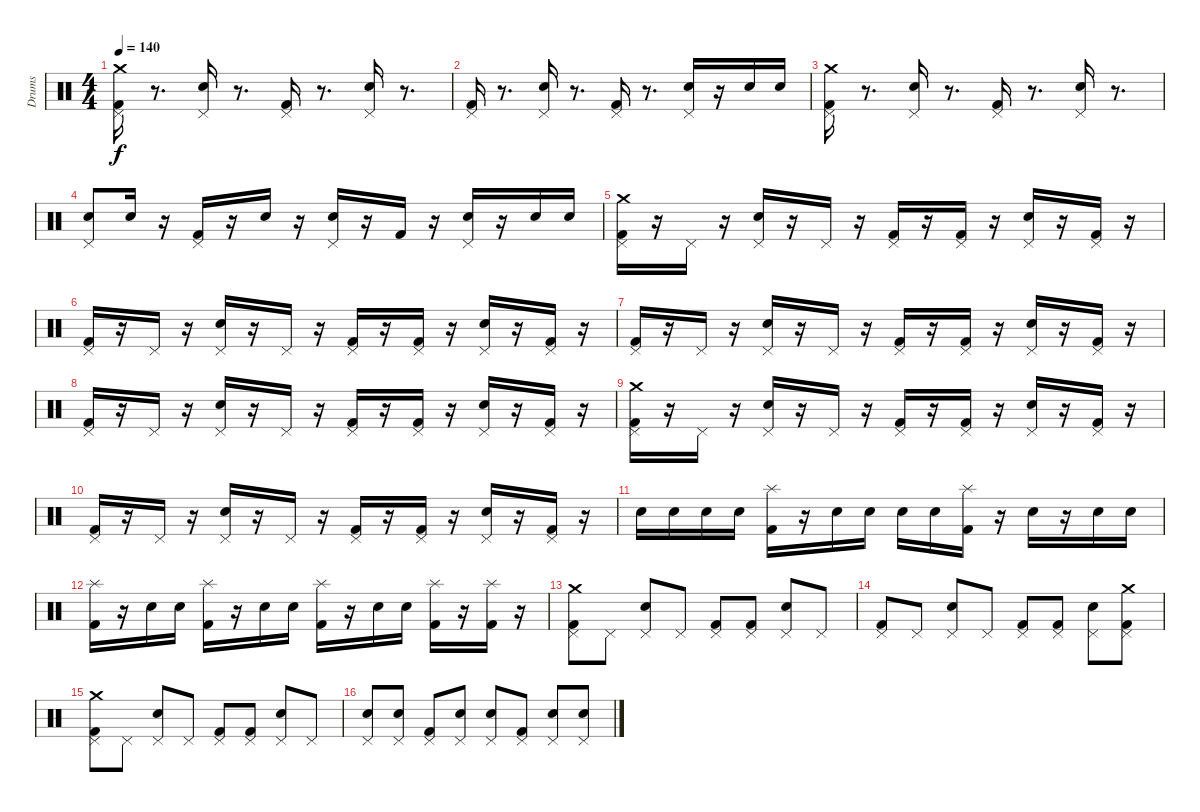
\track ("Drums" "Drums") {instrument percussion}
\staff {score}
\articulation defaults
\ts (4 4)
\tempo 140
\clef neutral
\ks c
("Crash medium (hit)" "Pedal Hi-Hat (hit)" "Kick (hit) 2").16{dy f} r.8{d} ("Pedal Hi-Hat (hit)" "Snare (hit) 2").16 r.8{d} ("Pedal Hi-Hat (hit)" "Kick (hit) 2").16 r.8{d} ("Pedal Hi-Hat (hit)" "Snare (hit) 2").16 r.8{d} |
("Pedal Hi-Hat (hit)" "Kick (hit) 2").16 r.8{d} ("Pedal Hi-Hat (hit)" "Snare (hit) 2").16 r.8{d} ("Pedal Hi-Hat (hit)" "Kick (hit) 2").16 r.8{d} ("Pedal Hi-Hat (hit)" "Snare (hit) 2").16 r.16 "Snare (hit) 2".16 "Snare (hit) 2".16 |
("Crash medium (hit)" "Pedal Hi-Hat (hit)" "Kick (hit) 2").16 r.8{d} ("Pedal Hi-Hat (hit)" "Snare (hit) 2").16 r.8{d} ("Pedal Hi-Hat (hit)" "Kick (hit) 2").16 r.8{d} ("Pedal Hi-Hat (hit)" "Snare (hit) 2").16 r.8{d} |
("Pedal Hi-Hat (hit)" "Snare (hit) 2").8 "Snare (hit) 2".16 r.16 ("Pedal Hi-Hat (hit)" "Kick (hit) 2").16 r.16 "Snare (hit) 2".16 r.16 ("Pedal Hi-Hat (hit)" "Snare (hit) 2").16 r.16 "Kick (hit) 2".16 r.16 ("Pedal Hi-Hat (hit)" "Snare (hit) 2").16 r.16 "Snare (hit) 2".16 "Snare (hit) 2".16 |
("Pedal Hi-Hat (hit)" "Kick (hit) 2" "Crash medium (hit)").16 r.16 "Pedal Hi-Hat (hit)".16 r.16 ("Pedal Hi-Hat (hit)" "Snare (hit) 2").16 r.16 "Pedal Hi-Hat (hit)".16 r.16 ("Pedal Hi-Hat (hit)" "Kick (hit) 2").16 r.16 ("Pedal Hi-Hat (hit)" "Kick (hit) 2").16 r.16 ("Pedal Hi-Hat (hit)" "Snare (hit) 2").16 r.16 ("Pedal Hi-Hat (hit)" "Kick (hit) 2").16 r.16 |
("Pedal Hi-Hat (hit)" "Kick (hit) 2").16 r.16 "Pedal Hi-Hat (hit)".16 r.16 ("Pedal Hi-Hat (hit)" "Snare (hit) 2").16 r.16 "Pedal Hi-Hat (hit)".16 r.16 ("Pedal Hi-Hat (hit)" "Kick (hit) 2").16 r.16 ("Pedal Hi-Hat (hit)" "Kick (hit) 2").16 r.16 ("Pedal Hi-Hat (hit)" "Snare (hit) 2").16 r.16 ("Pedal Hi-Hat (hit)" "Kick (hit) 2").16 r.16 |
("Pedal Hi-Hat (hit)" "Kick (hit) 2").16 r.16 "Pedal Hi-Hat (hit)".16 r.16 ("Pedal Hi-Hat (hit)" "Snare (hit) 2").16 r.16 "Pedal Hi-Hat (hit)".16 r.16 ("Pedal Hi-Hat (hit)" "Kick (hit) 2").16 r.16 ("Pedal Hi-Hat (hit)" "Kick (hit) 2").16 r.16 ("Pedal Hi-Hat (hit)" "Snare (hit) 2").16 r.16 ("Pedal Hi-Hat (hit)" "Kick (hit) 2").16 r.16 |
("Pedal Hi-Hat (hit)" "Kick (hit) 2").16 r.16 "Pedal Hi-Hat (hit)".16 r.16 ("Pedal Hi-Hat (hit)" "Snare (hit) 2").16 r.16 "Pedal Hi-Hat (hit)".16 r.16 ("Pedal Hi-Hat (hit)" "Kick (hit) 2").16 r.16 ("Pedal Hi-Hat (hit)" "Kick (hit) 2").16 r.16 ("Pedal Hi-Hat (hit)" "Snare (hit) 2").16 r.16 ("Pedal Hi-Hat (hit)" "Kick (hit) 2").16 r.16 |
("Crash medium (hit)" "Pedal Hi-Hat (hit)" "Kick (hit) 2").16 r.16 "Pedal Hi-Hat (hit)".16 r.16 ("Pedal Hi-Hat (hit)" "Snare (hit) 2").16 r.16 "Pedal Hi-Hat (hit)".16 r.16 ("Pedal Hi-Hat (hit)" "Kick (hit) 2").16 r.16 ("Pedal Hi-Hat (hit)" "Kick (hit) 2").16 r.16 ("Pedal Hi-Hat (hit)" "Snare (hit) 2").16 r.16 ("Pedal Hi-Hat (hit)" "Kick (hit) 2").16 r.16 |
("Pedal Hi-Hat (hit)" "Kick (hit) 2").16 r.16 "Pedal Hi-Hat (hit)".16 r.16 ("Pedal Hi-Hat (hit)" "Snare (hit) 2").16 r.16 "Pedal Hi-Hat (hit)".16 r.16 ("Pedal Hi-Hat (hit)" "Kick (hit) 2").16 r.16 ("Pedal Hi-Hat (hit)" "Kick (hit) 2").16 r.16 ("Pedal Hi-Hat (hit)" "Snare (hit) 2").16 r.16 ("Pedal Hi-Hat (hit)" "Kick (hit) 2").16 r.16 |
"Snare (hit) 2".16 "Snare (hit) 2".16 "Snare (hit) 2".16 "Snare (hit) 2".16 ("Splash (hit)" "Kick (hit) 2").16 r.16 "Snare (hit) 2".16 "Snare (hit) 2".16 "Snare (hit) 2".16 "Snare (hit) 2".16 ("Kick (hit) 2" "Splash (hit)").16 r.16 "Snare (hit) 2".16 r.16 "Snare (hit) 2".16 "Snare (hit) 2".16 |
("Splash (hit)" "Kick (hit) 2").16 r.16 "Snare (hit) 2".16 "Snare (hit) 2".16 ("Kick (hit) 2" "Splash (hit)").16 r.16 "Snare (hit) 2".16 "Snare (hit) 2".16 ("Kick (hit) 2" "Splash (hit)").16 r.16 "Snare (hit) 2".16 "Snare (hit) 2".16 ("Splash (hit)" "Kick (hit) 2").16 r.16 ("Splash (hit)" "Kick (hit) 2").16 r.16 |
("Pedal Hi-Hat (hit)" "Kick (hit) 2" "Crash medium (hit)").8 "Pedal Hi-Hat (hit)".8 ("Pedal Hi-Hat (hit)" "Snare (hit) 2").8 "Pedal Hi-Hat (hit)".8 ("Pedal Hi-Hat (hit)" "Kick (hit) 2").8 ("Pedal Hi-Hat (hit)" "Kick (hit) 2").8 ("Pedal Hi-Hat (hit)" "Snare (hit) 2").8 "Pedal Hi-Hat (hit)".8 |
("Pedal Hi-Hat (hit)" "Kick (hit) 2").8 "Pedal Hi-Hat (hit)".8 ("Pedal Hi-Hat (hit)" "Snare (hit) 2").8 "Pedal Hi-Hat (hit)".8 ("Pedal Hi-Hat (hit)" "Kick (hit) 2").8 ("Pedal Hi-Hat (hit)" "Kick (hit) 2").8 ("Pedal Hi-Hat (hit)" "Snare (hit) 2").8 ("Kick (hit) 2" "Crash medium (hit)" "Pedal Hi-Hat (hit)").8 |
("Crash medium (hit)" "Pedal Hi-Hat (hit)" "Kick (hit) 2").8 "Pedal Hi-Hat (hit)".8 ("Pedal Hi-Hat (hit)" "Snare (hit) 2").8 "Pedal Hi-Hat (hit)".8 ("Pedal Hi-Hat (hit)" "Kick (hit) 2").8 ("Pedal Hi-Hat (hit)" "Kick (hit) 2").8 ("Pedal Hi-Hat (hit)" "Snare (hit) 2").8 "Pedal Hi-Hat (hit)".8 |
("Snare (hit) 2" "Pedal Hi-Hat (hit)").8 ("Snare (hit) 2" "Pedal Hi-Hat (hit)").8 ("Kick (hit) 2" "Pedal Hi-Hat (hit)").8 ("Snare (hit) 2" "Pedal Hi-Hat (hit)").8 ("Pedal Hi-Hat (hit)" "Snare (hit) 2").8 ("Kick (hit) 2" "Pedal Hi-Hat (hit)").8 ("Pedal Hi-Hat (hit)" "Snare (hit) 2").8 ("Snare (hit) 2" "Pedal Hi-Hat (hit)").8
